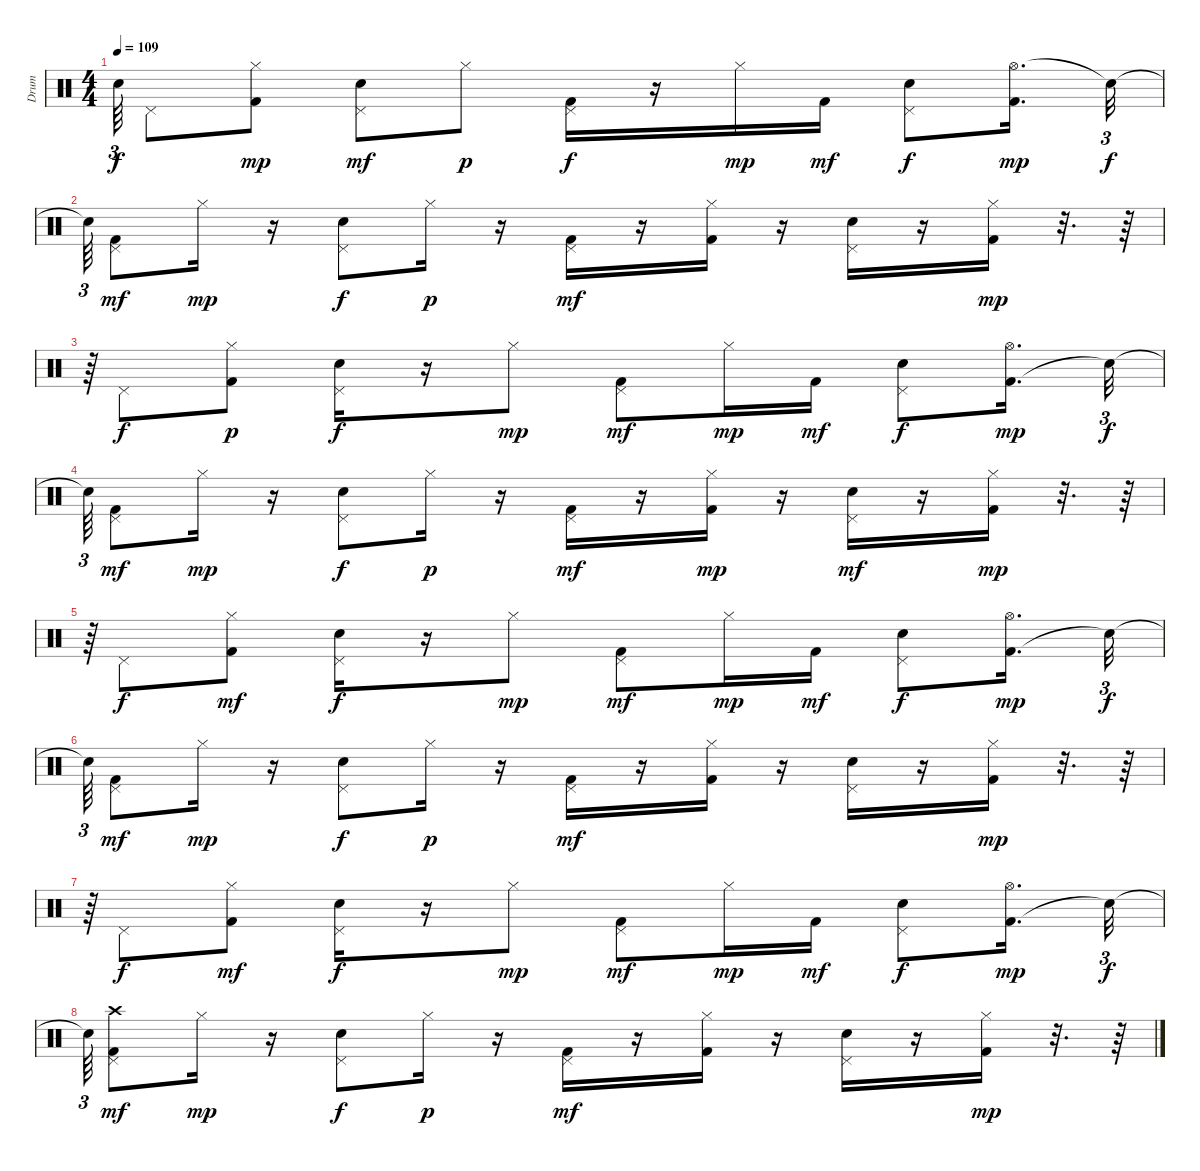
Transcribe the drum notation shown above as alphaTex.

\track ("Drum" "Drum") {instrument percussion}
\staff {score}
\articulation defaults
\ts (4 4)
\tempo 109
\clef neutral
\ks c "Snare (hit)"{t}.64{tu (3 2) dy f} "Pedal Hi-Hat (hit)".8
("Kick (hit) 2" "Hi-Hat (closed)").8{dy mp} ("Pedal Hi-Hat (hit)" "Electric Snare (hit)").8{dy mf} "Hi-Hat (closed)".8{dy p} ("Pedal Hi-Hat (hit)" "Kick (hit) 2").16{dy f} r.16 "Hi-Hat (closed)".16{dy mp} "Kick (hit) 2".16{dy mf} ("Pedal Hi-Hat (hit)" "Electric Snare (hit)").8{dy f} ("Hi-Hat (open)" "Kick (hit) 2").16{d dy mp} "Snare (hit)"{t}.32{tu (3 2) dy f} |
"Snare (hit)"{t}.64{tu (3 2)} ("Pedal Hi-Hat (hit)" "Kick (hit) 2").8{dy mf} "Hi-Hat (closed)".16{dy mp} r.16 ("Electric Snare (hit)" "Pedal Hi-Hat (hit)").8{dy f} "Hi-Hat (closed)".16{dy p} r.16 ("Kick (hit) 2" "Pedal Hi-Hat (hit)").16{dy mf} r.16 ("Hi-Hat (closed)" "Kick (hit) 2").16 r.16 ("Pedal Hi-Hat (hit)" "Electric Snare (hit)").16 r.16 ("Kick (hit) 2" "Hi-Hat (closed)").16{dy mp} r.32{d} r.64 |
r.64{tu (3 2)} "Pedal Hi-Hat (hit)".8{dy f} ("Kick (hit) 2" "Hi-Hat (closed)").8{dy p} ("Pedal Hi-Hat (hit)" "Electric Snare (hit)").16{dy f} r.16 "Hi-Hat (closed)".8{dy mp} ("Kick (hit) 2" "Pedal Hi-Hat (hit)").8{dy mf} "Hi-Hat (closed)".16{dy mp} "Kick (hit) 2".16{dy mf} ("Electric Snare (hit)" "Pedal Hi-Hat (hit)").8{dy f} ("Kick (hit) 2" "Hi-Hat (open)").16{d dy mp} "Snare (hit)"{t}.32{tu (3 2) dy f} |
"Snare (hit)"{t}.64{tu (3 2)} ("Kick (hit) 2" "Pedal Hi-Hat (hit)").8{dy mf} "Hi-Hat (closed)".16{dy mp} r.16 ("Electric Snare (hit)" "Pedal Hi-Hat (hit)").8{dy f} "Hi-Hat (closed)".16{dy p} r.16 ("Pedal Hi-Hat (hit)" "Kick (hit) 2").16{dy mf} r.16 ("Kick (hit) 2" "Hi-Hat (closed)").16{dy mp} r.16 ("Electric Snare (hit)" "Pedal Hi-Hat (hit)").16{dy mf} r.16 ("Kick (hit) 2" "Hi-Hat (closed)").16{dy mp} r.32{d} r.64 |
r.64{tu (3 2)} "Pedal Hi-Hat (hit)".8{dy f} ("Hi-Hat (closed)" "Kick (hit) 2").8{dy mf} ("Pedal Hi-Hat (hit)" "Electric Snare (hit)").16{dy f} r.16 "Hi-Hat (closed)".8{dy mp} ("Pedal Hi-Hat (hit)" "Kick (hit) 2").8{dy mf} "Hi-Hat (closed)".16{dy mp} "Kick (hit) 2".16{dy mf} ("Pedal Hi-Hat (hit)" "Electric Snare (hit)").8{dy f} ("Kick (hit) 2" "Hi-Hat (open)").16{d dy mp} "Snare (hit)"{t}.32{tu (3 2) dy f} |
"Snare (hit)"{t}.64{tu (3 2)} ("Pedal Hi-Hat (hit)" "Kick (hit) 2").8{dy mf} "Hi-Hat (closed)".16{dy mp} r.16 ("Electric Snare (hit)" "Pedal Hi-Hat (hit)").8{dy f} "Hi-Hat (closed)".16{dy p} r.16 ("Kick (hit) 2" "Pedal Hi-Hat (hit)").16{dy mf} r.16 ("Hi-Hat (closed)" "Kick (hit) 2").16 r.16 ("Electric Snare (hit)" "Pedal Hi-Hat (hit)").16 r.16 ("Kick (hit) 2" "Hi-Hat (closed)").16{dy mp} r.32{d} r.64 |
r.64{tu (3 2)} "Pedal Hi-Hat (hit)".8{dy f} ("Hi-Hat (closed)" "Kick (hit) 2").8{dy mf} ("Pedal Hi-Hat (hit)" "Electric Snare (hit)").16{dy f} r.16 "Hi-Hat (closed)".8{dy mp} ("Kick (hit) 2" "Pedal Hi-Hat (hit)").8{dy mf} "Hi-Hat (closed)".16{dy mp} "Kick (hit) 2".16{dy mf} ("Pedal Hi-Hat (hit)" "Electric Snare (hit)").8{dy f} ("Kick (hit) 2" "Hi-Hat (open)").16{d dy mp} "Snare (hit)"{t}.32{tu (3 2) dy f} |
"Snare (hit)"{t}.64{tu (3 2)} ("Kick (hit) 2" "Crash high (hit)" "Pedal Hi-Hat (hit)").8{dy mf} "Hi-Hat (closed)".16{dy mp} r.16 ("Pedal Hi-Hat (hit)" "Electric Snare (hit)").8{dy f} "Hi-Hat (closed)".16{dy p} r.16 ("Pedal Hi-Hat (hit)" "Kick (hit) 2").16{dy mf} r.16 ("Hi-Hat (closed)" "Kick (hit) 2").16 r.16 ("Pedal Hi-Hat (hit)" "Electric Snare (hit)").16 r.16 ("Kick (hit) 2" "Hi-Hat (closed)").16{dy mp} r.32{d} r.64
